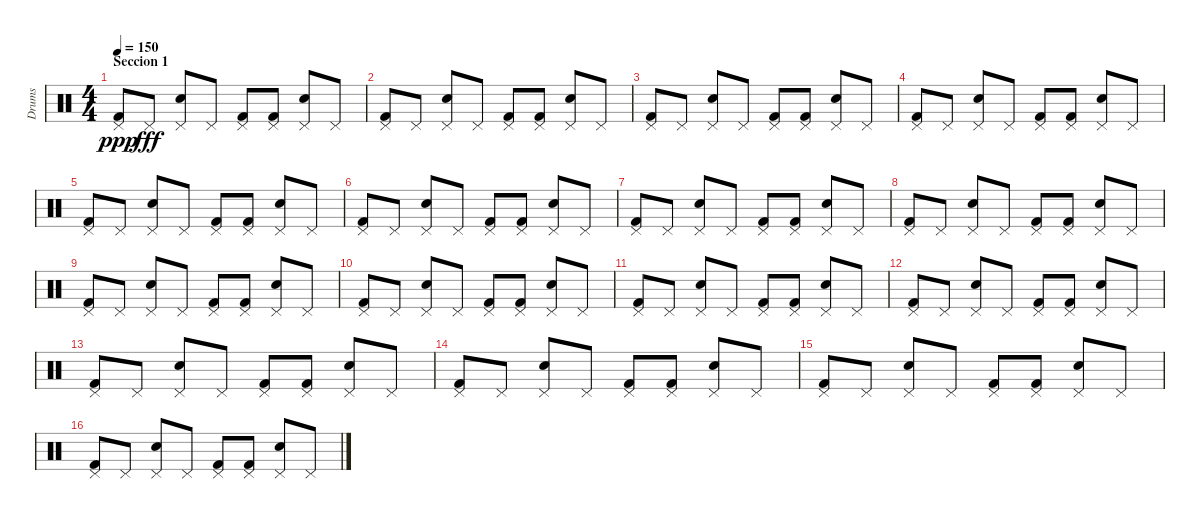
\track ("Drums" "Drums") {instrument percussion}
\staff {score}
\articulation defaults
\ts (4 4)
\section ("" "Seccion 1")
\tempo 150
\clef neutral
\ks c
("Pedal Hi-Hat (hit)" "Kick (hit) 2").8{dy ppp volume 3} "Pedal Hi-Hat (hit)".8{dy fff} ("Pedal Hi-Hat (hit)" "Snare (hit) 2").8 "Pedal Hi-Hat (hit)".8 ("Pedal Hi-Hat (hit)" "Kick (hit) 2").8 ("Pedal Hi-Hat (hit)" "Kick (hit) 2").8 ("Pedal Hi-Hat (hit)" "Snare (hit) 2").8 "Pedal Hi-Hat (hit)".8 |
("Pedal Hi-Hat (hit)" "Kick (hit) 2").8 "Pedal Hi-Hat (hit)".8 ("Pedal Hi-Hat (hit)" "Snare (hit) 2").8 "Pedal Hi-Hat (hit)".8 ("Pedal Hi-Hat (hit)" "Kick (hit) 2").8 ("Pedal Hi-Hat (hit)" "Kick (hit) 2").8 ("Pedal Hi-Hat (hit)" "Snare (hit) 2").8 "Pedal Hi-Hat (hit)".8 |
("Pedal Hi-Hat (hit)" "Kick (hit) 2").8 "Pedal Hi-Hat (hit)".8 ("Pedal Hi-Hat (hit)" "Snare (hit) 2").8 "Pedal Hi-Hat (hit)".8 ("Pedal Hi-Hat (hit)" "Kick (hit) 2").8 ("Pedal Hi-Hat (hit)" "Kick (hit) 2").8 ("Pedal Hi-Hat (hit)" "Snare (hit) 2").8 "Pedal Hi-Hat (hit)".8 |
("Pedal Hi-Hat (hit)" "Kick (hit) 2").8 "Pedal Hi-Hat (hit)".8 ("Pedal Hi-Hat (hit)" "Snare (hit) 2").8 "Pedal Hi-Hat (hit)".8 ("Pedal Hi-Hat (hit)" "Kick (hit) 2").8 ("Pedal Hi-Hat (hit)" "Kick (hit) 2").8 ("Pedal Hi-Hat (hit)" "Snare (hit) 2").8 "Pedal Hi-Hat (hit)".8 |
("Pedal Hi-Hat (hit)" "Kick (hit) 2").8{volume 16} "Pedal Hi-Hat (hit)".8 ("Pedal Hi-Hat (hit)" "Snare (hit) 2").8 "Pedal Hi-Hat (hit)".8 ("Pedal Hi-Hat (hit)" "Kick (hit) 2").8 ("Pedal Hi-Hat (hit)" "Kick (hit) 2").8 ("Pedal Hi-Hat (hit)" "Snare (hit) 2").8 "Pedal Hi-Hat (hit)".8 |
("Pedal Hi-Hat (hit)" "Kick (hit) 2").8 "Pedal Hi-Hat (hit)".8 ("Pedal Hi-Hat (hit)" "Snare (hit) 2").8 "Pedal Hi-Hat (hit)".8 ("Pedal Hi-Hat (hit)" "Kick (hit) 2").8 ("Pedal Hi-Hat (hit)" "Kick (hit) 2").8 ("Pedal Hi-Hat (hit)" "Snare (hit) 2").8 "Pedal Hi-Hat (hit)".8 |
("Pedal Hi-Hat (hit)" "Kick (hit) 2").8 "Pedal Hi-Hat (hit)".8 ("Pedal Hi-Hat (hit)" "Snare (hit) 2").8 "Pedal Hi-Hat (hit)".8 ("Pedal Hi-Hat (hit)" "Kick (hit) 2").8 ("Pedal Hi-Hat (hit)" "Kick (hit) 2").8 ("Pedal Hi-Hat (hit)" "Snare (hit) 2").8 "Pedal Hi-Hat (hit)".8 |
("Pedal Hi-Hat (hit)" "Kick (hit) 2").8 "Pedal Hi-Hat (hit)".8 ("Pedal Hi-Hat (hit)" "Snare (hit) 2").8 "Pedal Hi-Hat (hit)".8 ("Pedal Hi-Hat (hit)" "Kick (hit) 2").8 ("Pedal Hi-Hat (hit)" "Kick (hit) 2").8 ("Pedal Hi-Hat (hit)" "Snare (hit) 2").8 "Pedal Hi-Hat (hit)".8 |
("Pedal Hi-Hat (hit)" "Kick (hit) 2").8 "Pedal Hi-Hat (hit)".8 ("Pedal Hi-Hat (hit)" "Snare (hit) 2").8 "Pedal Hi-Hat (hit)".8 ("Pedal Hi-Hat (hit)" "Kick (hit) 2").8 ("Pedal Hi-Hat (hit)" "Kick (hit) 2").8 ("Pedal Hi-Hat (hit)" "Snare (hit) 2").8 "Pedal Hi-Hat (hit)".8 |
("Pedal Hi-Hat (hit)" "Kick (hit) 2").8 "Pedal Hi-Hat (hit)".8 ("Pedal Hi-Hat (hit)" "Snare (hit) 2").8 "Pedal Hi-Hat (hit)".8 ("Pedal Hi-Hat (hit)" "Kick (hit) 2").8 ("Pedal Hi-Hat (hit)" "Kick (hit) 2").8 ("Pedal Hi-Hat (hit)" "Snare (hit) 2").8 "Pedal Hi-Hat (hit)".8 |
("Pedal Hi-Hat (hit)" "Kick (hit) 2").8 "Pedal Hi-Hat (hit)".8 ("Pedal Hi-Hat (hit)" "Snare (hit) 2").8 "Pedal Hi-Hat (hit)".8 ("Pedal Hi-Hat (hit)" "Kick (hit) 2").8 ("Pedal Hi-Hat (hit)" "Kick (hit) 2").8 ("Pedal Hi-Hat (hit)" "Snare (hit) 2").8 "Pedal Hi-Hat (hit)".8 |
("Pedal Hi-Hat (hit)" "Kick (hit) 2").8 "Pedal Hi-Hat (hit)".8 ("Pedal Hi-Hat (hit)" "Snare (hit) 2").8 "Pedal Hi-Hat (hit)".8 ("Pedal Hi-Hat (hit)" "Kick (hit) 2").8 ("Pedal Hi-Hat (hit)" "Kick (hit) 2").8 ("Pedal Hi-Hat (hit)" "Snare (hit) 2").8 "Pedal Hi-Hat (hit)".8 |
("Pedal Hi-Hat (hit)" "Kick (hit) 2").8 "Pedal Hi-Hat (hit)".8 ("Pedal Hi-Hat (hit)" "Snare (hit) 2").8 "Pedal Hi-Hat (hit)".8 ("Pedal Hi-Hat (hit)" "Kick (hit) 2").8 ("Pedal Hi-Hat (hit)" "Kick (hit) 2").8 ("Pedal Hi-Hat (hit)" "Snare (hit) 2").8 "Pedal Hi-Hat (hit)".8 |
("Pedal Hi-Hat (hit)" "Kick (hit) 2").8 "Pedal Hi-Hat (hit)".8 ("Pedal Hi-Hat (hit)" "Snare (hit) 2").8 "Pedal Hi-Hat (hit)".8 ("Pedal Hi-Hat (hit)" "Kick (hit) 2").8 ("Pedal Hi-Hat (hit)" "Kick (hit) 2").8 ("Pedal Hi-Hat (hit)" "Snare (hit) 2").8 "Pedal Hi-Hat (hit)".8 |
("Pedal Hi-Hat (hit)" "Kick (hit) 2").8 "Pedal Hi-Hat (hit)".8 ("Pedal Hi-Hat (hit)" "Snare (hit) 2").8 "Pedal Hi-Hat (hit)".8 ("Pedal Hi-Hat (hit)" "Kick (hit) 2").8 ("Pedal Hi-Hat (hit)" "Kick (hit) 2").8 ("Pedal Hi-Hat (hit)" "Snare (hit) 2").8 "Pedal Hi-Hat (hit)".8 |
("Pedal Hi-Hat (hit)" "Kick (hit) 2").8 "Pedal Hi-Hat (hit)".8 ("Pedal Hi-Hat (hit)" "Snare (hit) 2").8 "Pedal Hi-Hat (hit)".8 ("Pedal Hi-Hat (hit)" "Kick (hit) 2").8 ("Pedal Hi-Hat (hit)" "Kick (hit) 2").8 ("Pedal Hi-Hat (hit)" "Snare (hit) 2").8 "Pedal Hi-Hat (hit)".8
